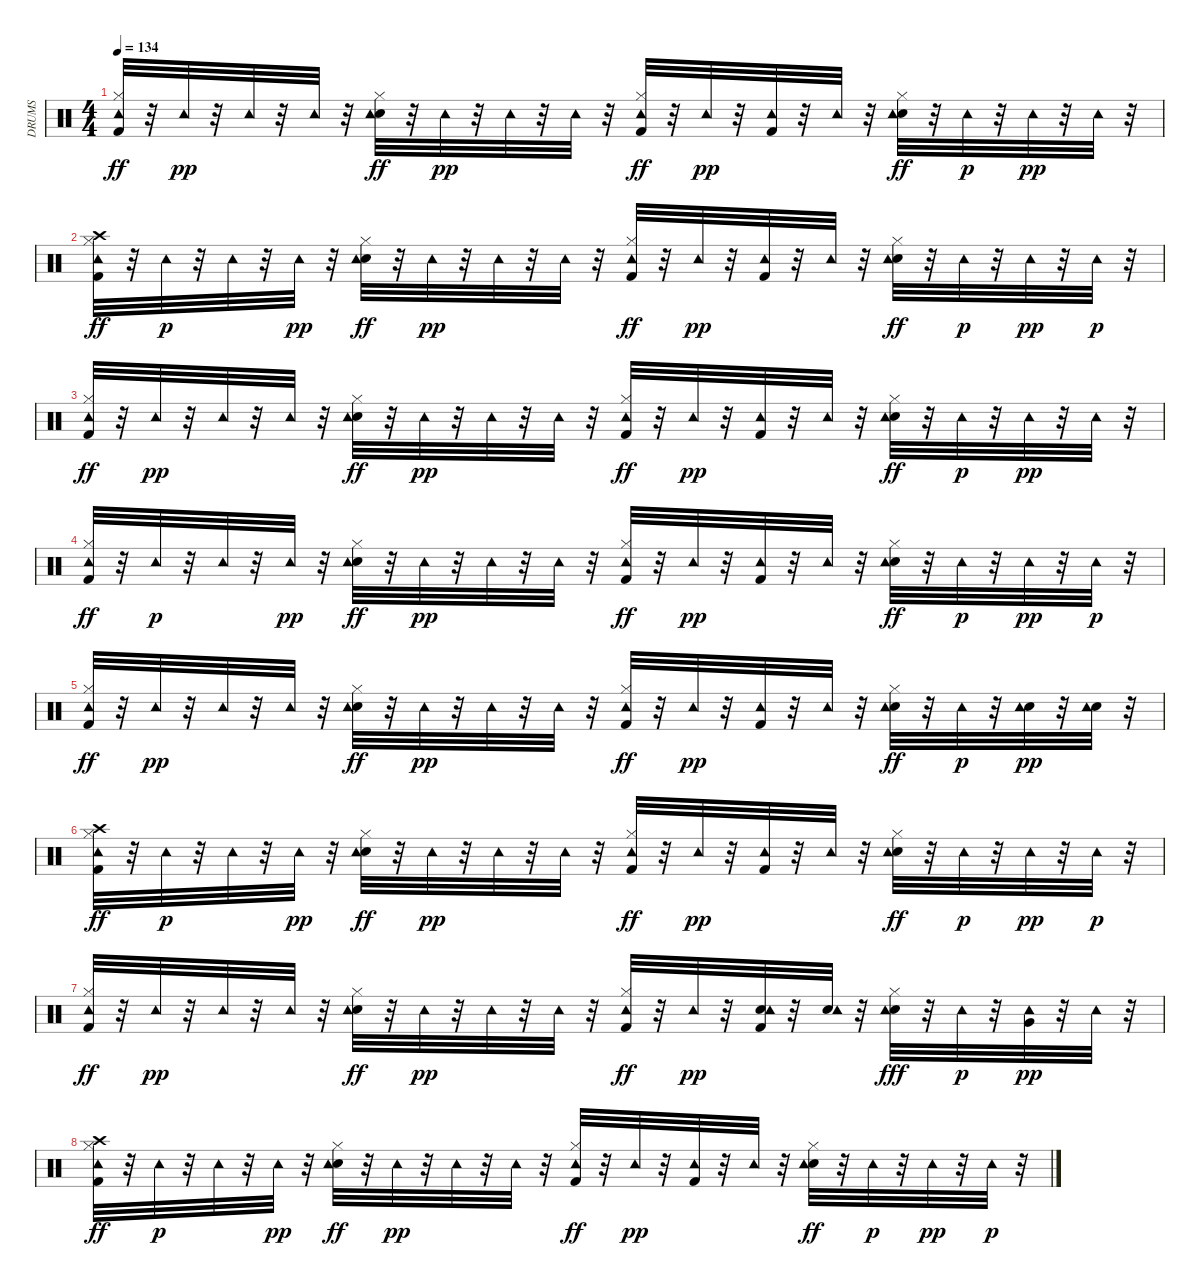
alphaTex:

\track ("DRUMS" "DRUMS") {instrument percussion}
\staff {score}
\articulation defaults
\ts (4 4)
\tempo 134
\clef neutral
\ks c
("Kick (hit) 2" "Hi-Hat (closed)" "Tambourine (hit)").32{dy ff} r.32 "Tambourine (hit)".32{dy pp} r.32 "Tambourine (hit)".32 r.32 "Tambourine (hit)".32 r.32 ("Snare (hit) 2" "Hi-Hat (closed)" "Tambourine (hit)").32{dy ff} r.32 "Tambourine (hit)".32{dy pp} r.32 "Tambourine (hit)".32 r.32 "Tambourine (hit)".32 r.32 ("Kick (hit) 2" "Hi-Hat (closed)" "Tambourine (hit)").32{dy ff} r.32 "Tambourine (hit)".32{dy pp} r.32 ("Kick (hit) 2" "Tambourine (hit)").32 r.32 "Tambourine (hit)".32 r.32 ("Snare (hit) 2" "Hi-Hat (closed)" "Tambourine (hit)").32{dy ff} r.32 "Tambourine (hit)".32{dy p} r.32 "Tambourine (hit)".32{dy pp} r.32 "Tambourine (hit)".32 r.32 |
("Kick (hit) 2" "Hi-Hat (closed)" "Crash high (hit)" "Tambourine (hit)").32{dy ff} r.32 "Tambourine (hit)".32{dy p} r.32 "Tambourine (hit)".32 r.32 "Tambourine (hit)".32{dy pp} r.32 ("Snare (hit) 2" "Hi-Hat (closed)" "Tambourine (hit)").32{dy ff} r.32 "Tambourine (hit)".32{dy pp} r.32 "Tambourine (hit)".32 r.32 "Tambourine (hit)".32 r.32 ("Kick (hit) 2" "Hi-Hat (closed)" "Tambourine (hit)").32{dy ff} r.32 "Tambourine (hit)".32{dy pp} r.32 ("Kick (hit) 2" "Tambourine (hit)").32 r.32 "Tambourine (hit)".32 r.32 ("Snare (hit) 2" "Hi-Hat (closed)" "Tambourine (hit)").32{dy ff} r.32 "Tambourine (hit)".32{dy p} r.32 "Tambourine (hit)".32{dy pp} r.32 "Tambourine (hit)".32{dy p} r.32 |
("Kick (hit) 2" "Hi-Hat (closed)" "Tambourine (hit)").32{dy ff} r.32 "Tambourine (hit)".32{dy pp} r.32 "Tambourine (hit)".32 r.32 "Tambourine (hit)".32 r.32 ("Snare (hit) 2" "Hi-Hat (closed)" "Tambourine (hit)").32{dy ff} r.32 "Tambourine (hit)".32{dy pp} r.32 "Tambourine (hit)".32 r.32 "Tambourine (hit)".32 r.32 ("Kick (hit) 2" "Hi-Hat (closed)" "Tambourine (hit)").32{dy ff} r.32 "Tambourine (hit)".32{dy pp} r.32 ("Kick (hit) 2" "Tambourine (hit)").32 r.32 "Tambourine (hit)".32 r.32 ("Snare (hit) 2" "Hi-Hat (closed)" "Tambourine (hit)").32{dy ff} r.32 "Tambourine (hit)".32{dy p} r.32 "Tambourine (hit)".32{dy pp} r.32 "Tambourine (hit)".32 r.32 |
("Kick (hit) 2" "Hi-Hat (closed)" "Tambourine (hit)").32{dy ff} r.32 "Tambourine (hit)".32{dy p} r.32 "Tambourine (hit)".32 r.32 "Tambourine (hit)".32{dy pp} r.32 ("Snare (hit) 2" "Hi-Hat (closed)" "Tambourine (hit)").32{dy ff} r.32 "Tambourine (hit)".32{dy pp} r.32 "Tambourine (hit)".32 r.32 "Tambourine (hit)".32 r.32 ("Kick (hit) 2" "Hi-Hat (closed)" "Tambourine (hit)").32{dy ff} r.32 "Tambourine (hit)".32{dy pp} r.32 ("Kick (hit) 2" "Tambourine (hit)").32 r.32 "Tambourine (hit)".32 r.32 ("Snare (hit) 2" "Hi-Hat (closed)" "Tambourine (hit)").32{dy ff} r.32 "Tambourine (hit)".32{dy p} r.32 "Tambourine (hit)".32{dy pp} r.32 "Tambourine (hit)".32{dy p} r.32 |
("Kick (hit) 2" "Hi-Hat (closed)" "Tambourine (hit)").32{dy ff} r.32 "Tambourine (hit)".32{dy pp} r.32 "Tambourine (hit)".32 r.32 "Tambourine (hit)".32 r.32 ("Snare (hit) 2" "Hi-Hat (closed)" "Tambourine (hit)").32{dy ff} r.32 "Tambourine (hit)".32{dy pp} r.32 "Tambourine (hit)".32 r.32 "Tambourine (hit)".32 r.32 ("Kick (hit) 2" "Hi-Hat (closed)" "Tambourine (hit)").32{dy ff} r.32 "Tambourine (hit)".32{dy pp} r.32 ("Kick (hit) 2" "Tambourine (hit)").32 r.32 "Tambourine (hit)".32 r.32 ("Snare (hit) 2" "Hi-Hat (closed)" "Tambourine (hit)").32{dy ff} r.32 "Tambourine (hit)".32{dy p} r.32 ("Snare (hit) 2" "Tambourine (hit)").32{dy pp} r.32 ("Snare (hit) 2" "Tambourine (hit)").32 r.32 |
("Kick (hit) 2" "Hi-Hat (closed)" "Crash high (hit)" "Tambourine (hit)").32{dy ff} r.32 "Tambourine (hit)".32{dy p} r.32 "Tambourine (hit)".32 r.32 "Tambourine (hit)".32{dy pp} r.32 ("Snare (hit) 2" "Hi-Hat (closed)" "Tambourine (hit)").32{dy ff} r.32 "Tambourine (hit)".32{dy pp} r.32 "Tambourine (hit)".32 r.32 "Tambourine (hit)".32 r.32 ("Kick (hit) 2" "Hi-Hat (closed)" "Tambourine (hit)").32{dy ff} r.32 "Tambourine (hit)".32{dy pp} r.32 ("Kick (hit) 2" "Tambourine (hit)").32 r.32 "Tambourine (hit)".32 r.32 ("Snare (hit) 2" "Hi-Hat (closed)" "Tambourine (hit)").32{dy ff} r.32 "Tambourine (hit)".32{dy p} r.32 "Tambourine (hit)".32{dy pp} r.32 "Tambourine (hit)".32{dy p} r.32 |
("Kick (hit) 2" "Hi-Hat (closed)" "Tambourine (hit)").32{dy ff} r.32 "Tambourine (hit)".32{dy pp} r.32 "Tambourine (hit)".32 r.32 "Tambourine (hit)".32 r.32 ("Snare (hit) 2" "Hi-Hat (closed)" "Tambourine (hit)").32{dy ff} r.32 "Tambourine (hit)".32{dy pp} r.32 "Tambourine (hit)".32 r.32 "Tambourine (hit)".32 r.32 ("Kick (hit) 2" "Hi-Hat (closed)" "Tambourine (hit)").32{dy ff} r.32 "Tambourine (hit)".32{dy pp} r.32 ("Kick (hit) 2" "Snare (hit) 2" "Tambourine (hit)").32 r.32 ("Snare (hit) 2" "Tambourine (hit)").32 r.32 ("Snare (hit) 2" "Hi-Hat (closed)" "Tambourine (hit)").32{dy fff} r.32 "Tambourine (hit)".32{dy p} r.32 ("Very Low Tom (hit)" "Tambourine (hit)").32{dy pp} r.32 "Tambourine (hit)".32 r.32 |
("Kick (hit) 2" "Hi-Hat (closed)" "Crash high (hit)" "Tambourine (hit)").32{dy ff} r.32 "Tambourine (hit)".32{dy p} r.32 "Tambourine (hit)".32 r.32 "Tambourine (hit)".32{dy pp} r.32 ("Snare (hit) 2" "Hi-Hat (closed)" "Tambourine (hit)").32{dy ff} r.32 "Tambourine (hit)".32{dy pp} r.32 "Tambourine (hit)".32 r.32 "Tambourine (hit)".32 r.32 ("Kick (hit) 2" "Hi-Hat (closed)" "Tambourine (hit)").32{dy ff} r.32 "Tambourine (hit)".32{dy pp} r.32 ("Kick (hit) 2" "Tambourine (hit)").32 r.32 "Tambourine (hit)".32 r.32 ("Snare (hit) 2" "Hi-Hat (closed)" "Tambourine (hit)").32{dy ff} r.32 "Tambourine (hit)".32{dy p} r.32 "Tambourine (hit)".32{dy pp} r.32 "Tambourine (hit)".32{dy p} r.32
